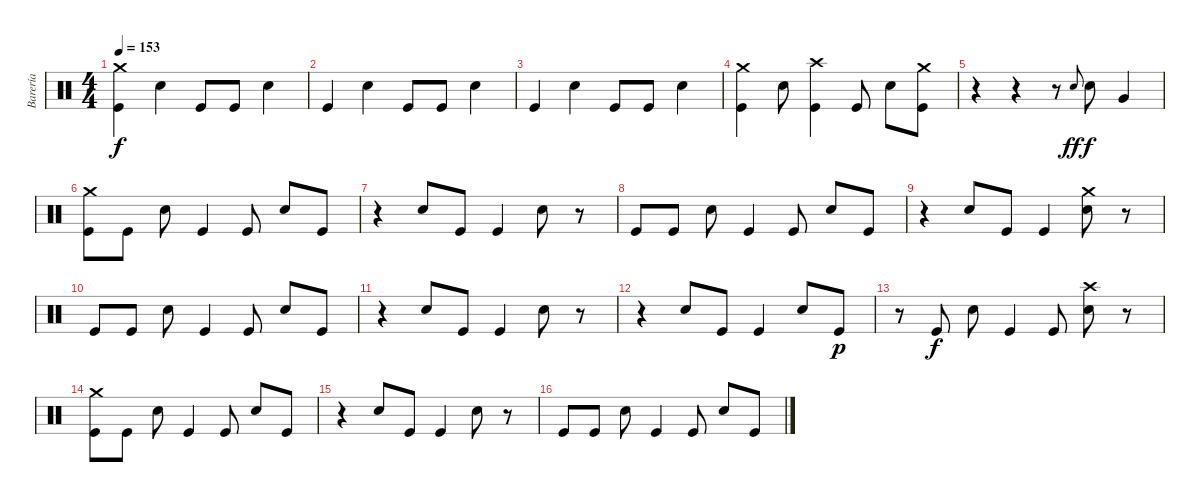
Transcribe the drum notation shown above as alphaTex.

\track ("Barería" "Barería") {instrument percussion}
\staff {score}
\articulation defaults
\ts (4 4)
\tempo 153
\clef neutral
\ks c
("Crash medium (hit)" "Kick (hit)").4{dy f} "Snare (hit) 2".4 "Kick (hit)".8 "Kick (hit)".8 "Snare (hit) 2".4 |
"Kick (hit)".4 "Snare (hit) 2".4 "Kick (hit)".8 "Kick (hit)".8 "Snare (hit) 2".4 |
"Kick (hit)".4 "Snare (hit) 2".4 "Kick (hit)".8 "Kick (hit)".8 "Snare (hit) 2".4 |
("Crash medium (hit)" "Kick (hit)").4 "Snare (hit) 2".8 ("Crash high (hit)" "Kick (hit)").4 "Kick (hit)".8 "Snare (hit) 2".8 ("Crash medium (hit)" "Kick (hit)").8 |
r.4 r.4 r.8 "Snare (hit) 2".8{gr onbeat dy ff} "Snare (hit) 2".8{dy f} "Very Low Tom (hit)".4 |
("Crash medium (hit)" "Kick (hit)").8 "Kick (hit)".8 "Snare (hit) 2".8 "Kick (hit)".4 "Kick (hit)".8 "Snare (hit) 2".8 "Kick (hit)".8 |
r.4 "Snare (hit) 2".8 "Kick (hit)".8 "Kick (hit)".4 "Snare (hit) 2".8 r.8 |
"Kick (hit)".8 "Kick (hit)".8 "Snare (hit) 2".8 "Kick (hit)".4 "Kick (hit)".8 "Snare (hit) 2".8 "Kick (hit)".8 |
r.4 "Snare (hit) 2".8 "Kick (hit)".8 "Kick (hit)".4 ("Crash medium (hit)" "Snare (hit) 2").8 r.8 |
"Kick (hit)".8 "Kick (hit)".8 "Snare (hit) 2".8 "Kick (hit)".4 "Kick (hit)".8 "Snare (hit) 2".8 "Kick (hit)".8 |
r.4 "Snare (hit) 2".8 "Kick (hit)".8 "Kick (hit)".4 "Snare (hit) 2".8 r.8 |
r.4 "Snare (hit) 2".8 "Kick (hit)".8 "Kick (hit)".4 "Snare (hit) 2".8 "Kick (hit)".8{dy p} |
r.8 "Kick (hit)".8{dy f} "Snare (hit) 2".8 "Kick (hit)".4 "Kick (hit)".8 ("Crash high (hit)" "Snare (hit) 2").8 r.8 |
("Crash medium (hit)" "Kick (hit)").8 "Kick (hit)".8 "Snare (hit) 2".8 "Kick (hit)".4 "Kick (hit)".8 "Snare (hit) 2".8 "Kick (hit)".8 |
r.4 "Snare (hit) 2".8 "Kick (hit)".8 "Kick (hit)".4 "Snare (hit) 2".8 r.8 |
"Kick (hit)".8 "Kick (hit)".8 "Snare (hit) 2".8 "Kick (hit)".4 "Kick (hit)".8 "Snare (hit) 2".8 "Kick (hit)".8
